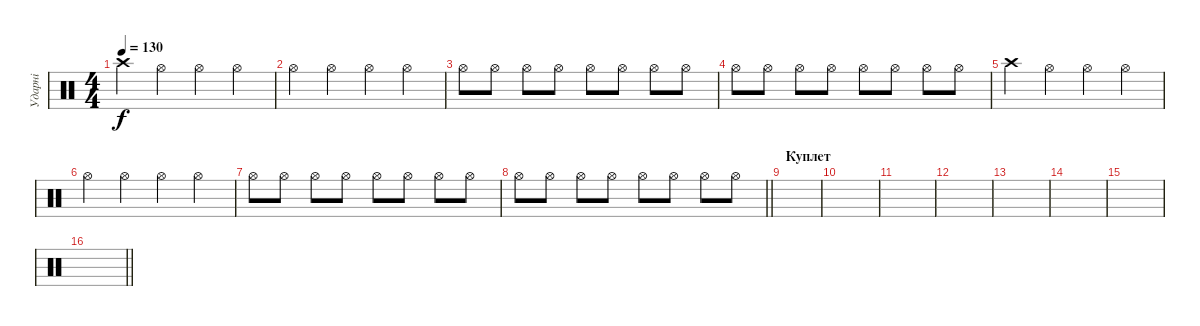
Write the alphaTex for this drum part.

\track ("Ударні" "Ударні") {instrument percussion}
\staff {score}
\articulation defaults
\ts (4 4)
\tempo 130
\clef neutral
\ks c "Crash high (hit)".4{dy f} "Hi-Hat (open)".4 "Hi-Hat (open)".4 "Hi-Hat (open)".4
|
"Hi-Hat (open)".4 "Hi-Hat (open)".4 "Hi-Hat (open)".4 "Hi-Hat (open)".4 |
"Hi-Hat (open)".8 "Hi-Hat (open)".8 "Hi-Hat (open)".8 "Hi-Hat (open)".8 "Hi-Hat (open)".8 "Hi-Hat (open)".8 "Hi-Hat (open)".8 "Hi-Hat (open)".8 |
"Hi-Hat (open)".8 "Hi-Hat (open)".8 "Hi-Hat (open)".8 "Hi-Hat (open)".8 "Hi-Hat (open)".8 "Hi-Hat (open)".8 "Hi-Hat (open)".8 "Hi-Hat (open)".8 |
"Crash high (hit)".4 "Hi-Hat (open)".4 "Hi-Hat (open)".4 "Hi-Hat (open)".4 |
"Hi-Hat (open)".4 "Hi-Hat (open)".4 "Hi-Hat (open)".4 "Hi-Hat (open)".4 |
"Hi-Hat (open)".8 "Hi-Hat (open)".8 "Hi-Hat (open)".8 "Hi-Hat (open)".8 "Hi-Hat (open)".8 "Hi-Hat (open)".8 "Hi-Hat (open)".8 "Hi-Hat (open)".8 |
\barLineRight lightlight "Hi-Hat (open)".8 "Hi-Hat (open)".8 "Hi-Hat (open)".8 "Hi-Hat (open)".8 "Hi-Hat (open)".8 "Hi-Hat (open)".8 "Hi-Hat (open)".8 "Hi-Hat (open)".8
|
\section ("" "Куплет")
|
|
|
|
|
|
|
\barLineRight lightlight
